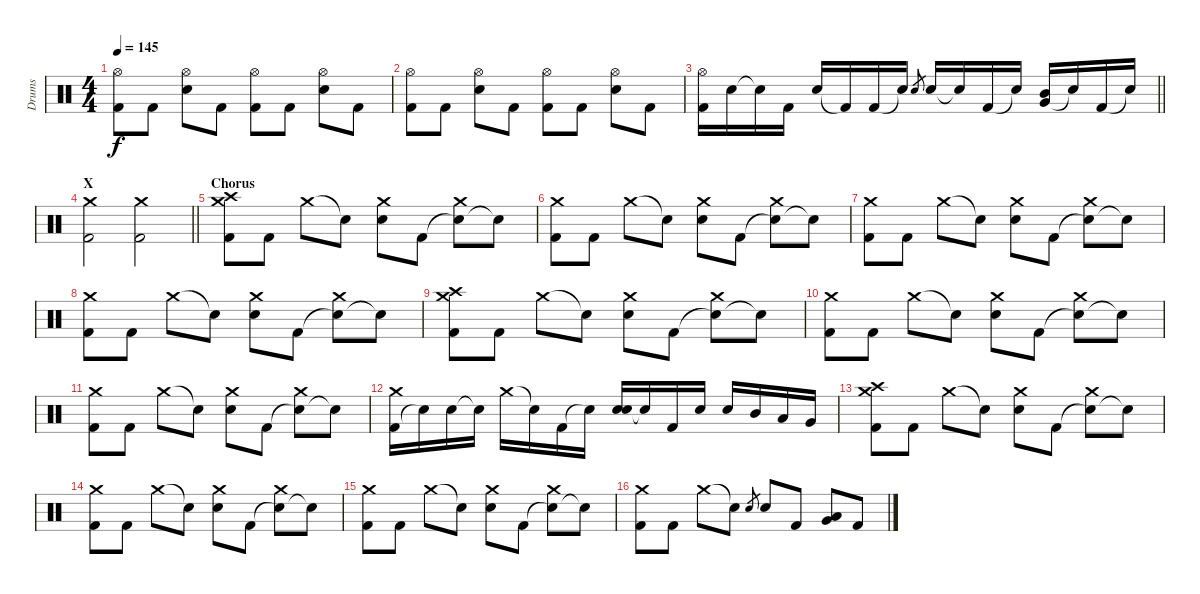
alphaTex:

\track ("Drums" "Drums") {instrument percussion}
\staff {score}
\articulation defaults
\ts (4 4)
\tempo 145
\clef neutral
\ks c
("Kick (hit) 2" "Hi-Hat (open)").8{dy f} "Kick (hit) 2".8 ("Electric Snare (hit)" "Hi-Hat (open)").8 "Kick (hit) 2".8 ("Kick (hit) 2" "Hi-Hat (open)").8 "Kick (hit) 2".8 ("Electric Snare (hit)" "Hi-Hat (open)").8 "Kick (hit) 2".8 |
("Kick (hit) 2" "Hi-Hat (open)").8 "Kick (hit) 2".8 ("Electric Snare (hit)" "Hi-Hat (open)").8 "Kick (hit) 2".8 ("Kick (hit) 2" "Hi-Hat (open)").8 "Kick (hit) 2".8 ("Electric Snare (hit)" "Hi-Hat (open)").8 "Kick (hit) 2".8 |
\barLineRight lightlight
("Kick (hit) 2" "Hi-Hat (open)").16 "Electric Snare (hit)".16 "Snare (hit)"{t}.16 "Kick (hit) 2".16 "Electric Snare (hit)".16 "Kick (hit) 2"{t}.16 "Kick (hit) 2".16 "Snare (hit)"{t}.16 "Electric Snare (hit)".8{gr} "Electric Snare (hit)".16 "Snare (hit)"{t}.16 "Kick (hit) 2".16 "Snare (hit)"{t}.16 ("Very Low Tom (hit)" "Mid Tom (hit)").16 "Snare (hit)"{t}.16 "Kick (hit) 2".16 "Snare (hit)"{t}.16 |
\section ("" "X")
\barLineRight lightlight
("Kick (hit) 2" "Crash medium (hit)").2 ("Kick (hit) 2" "Crash medium (hit)").2 |
\section ("" "Chorus")
("Kick (hit) 2" "Crash medium (hit)" "Crash high (hit)").8 "Kick (hit) 2".8 "Crash medium (hit)".8 "Snare (hit)"{t}.8 ("Electric Snare (hit)" "Crash medium (hit)").8 "Kick (hit) 2".8 ("Snare (hit)"{t} "Crash medium (hit)").8 "Snare (hit)"{t}.8 |
("Kick (hit) 2" "Crash medium (hit)").8 "Kick (hit) 2".8 "Crash medium (hit)".8 "Snare (hit)"{t}.8 ("Electric Snare (hit)" "Crash medium (hit)").8 "Kick (hit) 2".8 ("Snare (hit)"{t} "Crash medium (hit)").8 "Snare (hit)"{t}.8 |
("Kick (hit) 2" "Crash medium (hit)").8 "Kick (hit) 2".8 "Crash medium (hit)".8 "Snare (hit)"{t}.8 ("Electric Snare (hit)" "Crash medium (hit)").8 "Kick (hit) 2".8 ("Snare (hit)"{t} "Crash medium (hit)").8 "Snare (hit)"{t}.8 |
("Kick (hit) 2" "Crash medium (hit)").8 "Kick (hit) 2".8 "Crash medium (hit)".8 "Snare (hit)"{t}.8 ("Electric Snare (hit)" "Crash medium (hit)").8 "Kick (hit) 2".8 ("Snare (hit)"{t} "Crash medium (hit)").8 "Snare (hit)"{t}.8 |
("Kick (hit) 2" "Crash medium (hit)" "Crash high (hit)").8 "Kick (hit) 2".8 "Crash medium (hit)".8 "Snare (hit)"{t}.8 ("Electric Snare (hit)" "Crash medium (hit)").8 "Kick (hit) 2".8 ("Snare (hit)"{t} "Crash medium (hit)").8 "Snare (hit)"{t}.8 |
("Kick (hit) 2" "Crash medium (hit)").8 "Kick (hit) 2".8 "Crash medium (hit)".8 "Snare (hit)"{t}.8 ("Electric Snare (hit)" "Crash medium (hit)").8 "Kick (hit) 2".8 ("Snare (hit)"{t} "Crash medium (hit)").8 "Snare (hit)"{t}.8 |
("Kick (hit) 2" "Crash medium (hit)").8 "Kick (hit) 2".8 "Crash medium (hit)".8 "Snare (hit)"{t}.8 ("Electric Snare (hit)" "Crash medium (hit)").8 "Kick (hit) 2".8 ("Snare (hit)"{t} "Crash medium (hit)").8 "Snare (hit)"{t}.8 |
("Kick (hit) 2" "Crash medium (hit)").16 "Snare (hit)"{t}.16 "Electric Snare (hit)".16 "Snare (hit)"{t}.16 "Crash medium (hit)".16 "Snare (hit)"{t}.16 "Kick (hit) 2".16 "Snare (hit)"{t}.16 ("Electric Snare (hit)" "Electric Snare (hit)").16 "Snare (hit)"{t}.16 "Kick (hit) 2".16 "Electric Snare (hit)".16 "Electric Snare (hit)".16 "Mid Tom (hit)".16 "Low Tom (hit)".16 "Very Low Tom (hit)".16 |
("Kick (hit) 2" "Crash medium (hit)" "Crash high (hit)").8 "Kick (hit) 2".8 "Crash medium (hit)".8 "Snare (hit)"{t}.8 ("Electric Snare (hit)" "Crash medium (hit)").8 "Kick (hit) 2".8 ("Snare (hit)"{t} "Crash medium (hit)").8 "Snare (hit)"{t}.8 |
("Kick (hit) 2" "Crash medium (hit)").8 "Kick (hit) 2".8 "Crash medium (hit)".8 "Snare (hit)"{t}.8 ("Electric Snare (hit)" "Crash medium (hit)").8 "Kick (hit) 2".8 ("Snare (hit)"{t} "Crash medium (hit)").8 "Snare (hit)"{t}.8 |
("Kick (hit) 2" "Crash medium (hit)").8 "Kick (hit) 2".8 "Crash medium (hit)".8 "Snare (hit)"{t}.8 ("Electric Snare (hit)" "Crash medium (hit)").8 "Kick (hit) 2".8 ("Snare (hit)"{t} "Crash medium (hit)").8 "Snare (hit)"{t}.8 |
("Kick (hit) 2" "Crash medium (hit)").8 "Kick (hit) 2".8 "Crash medium (hit)".8 "Snare (hit)"{t}.8 "Electric Snare (hit)".8{gr} "Electric Snare (hit)".8 "Kick (hit) 2".8 ("Low Tom (hit)" "Very Low Tom (hit)").8 "Kick (hit) 2".8
